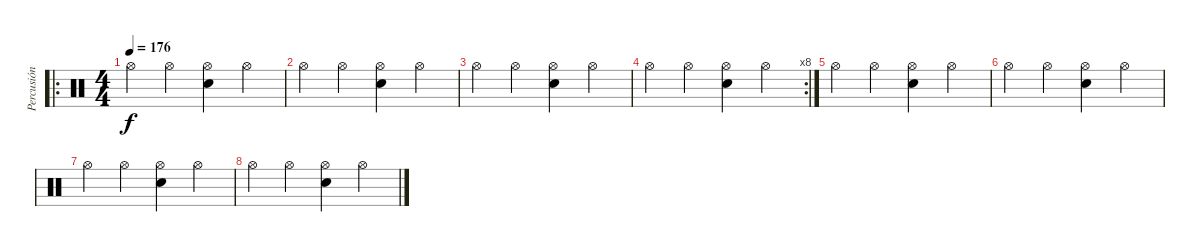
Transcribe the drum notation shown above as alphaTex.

\track ("Percusión" "Percusión") {instrument percussion}
\staff {score}
\articulation defaults
\ro
\ts (4 4)
\tempo 176
\clef neutral
\ks c "Hi-Hat (open)".4{dy f} "Hi-Hat (open)".4
("Hi-Hat (open)" "Electric Snare (hit)").4 "Hi-Hat (open)".4 |
"Hi-Hat (open)".4 "Hi-Hat (open)".4 ("Hi-Hat (open)" "Electric Snare (hit)").4 "Hi-Hat (open)".4 |
"Hi-Hat (open)".4 "Hi-Hat (open)".4 ("Hi-Hat (open)" "Electric Snare (hit)").4 "Hi-Hat (open)".4 |
\rc 8 "Hi-Hat (open)".4 "Hi-Hat (open)".4
("Hi-Hat (open)" "Electric Snare (hit)").4 "Hi-Hat (open)".4 |
"Hi-Hat (open)".4 "Hi-Hat (open)".4 ("Hi-Hat (open)" "Electric Snare (hit)").4 "Hi-Hat (open)".4 |
"Hi-Hat (open)".4 "Hi-Hat (open)".4 ("Hi-Hat (open)" "Electric Snare (hit)").4 "Hi-Hat (open)".4 |
"Hi-Hat (open)".4 "Hi-Hat (open)".4 ("Hi-Hat (open)" "Electric Snare (hit)").4 "Hi-Hat (open)".4 |
"Hi-Hat (open)".4 "Hi-Hat (open)".4 ("Hi-Hat (open)" "Electric Snare (hit)").4 "Hi-Hat (open)".4
